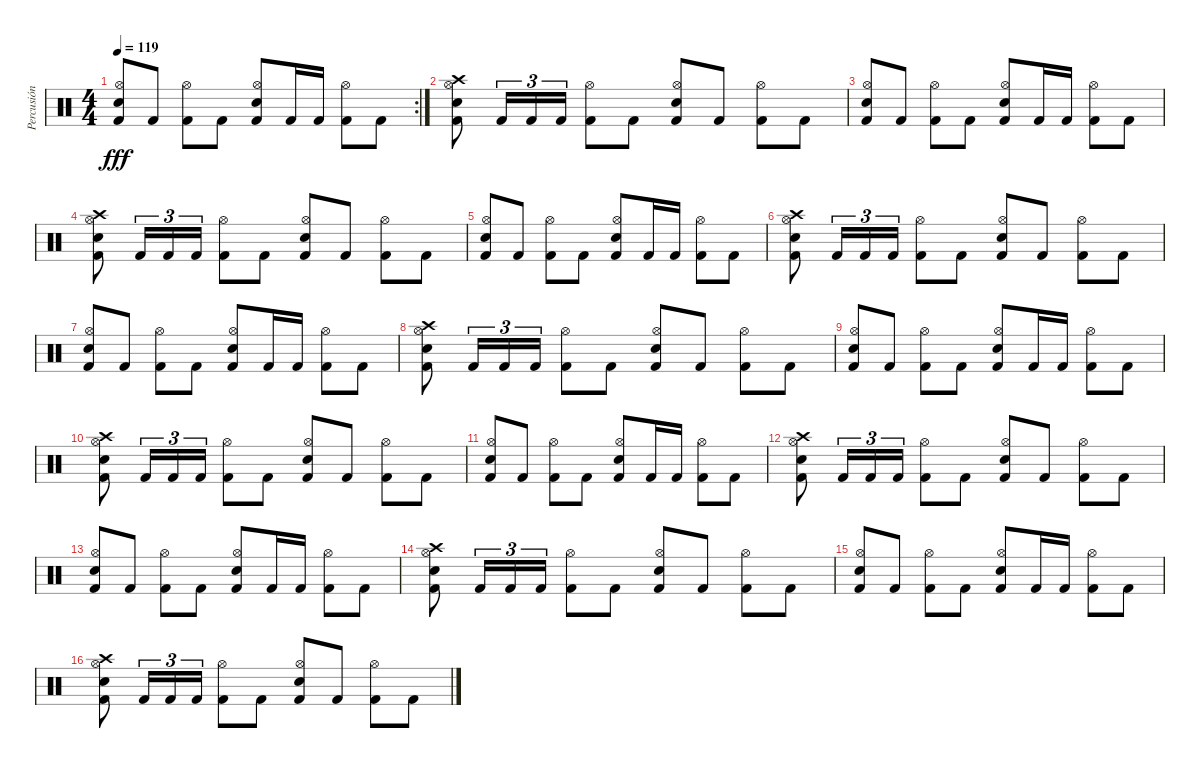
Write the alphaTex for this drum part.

\track ("Percusión" "Percusión") {instrument percussion}
\staff {score}
\articulation defaults
\rc 2
\ts (4 4)
\tempo 119
\clef neutral
\ks c
("Electric Snare (hit)" "Hi-Hat (open)" "Kick (hit) 2").8{dy fff} "Kick (hit) 2".8 ("Hi-Hat (open)" "Kick (hit) 2").8 "Kick (hit) 2".8 ("Electric Snare (hit)" "Hi-Hat (open)" "Kick (hit) 2").8 "Kick (hit) 2".16 "Kick (hit) 2".16 ("Hi-Hat (open)" "Kick (hit) 2").8 "Kick (hit) 2".8 |
("Crash high (hit)" "Electric Snare (hit)" "Hi-Hat (open)" "Kick (hit) 2").8 "Kick (hit) 2".16{tu (3 2)} "Kick (hit) 2".16{tu (3 2)} "Kick (hit) 2".16{tu (3 2)} ("Hi-Hat (open)" "Kick (hit) 2").8 "Kick (hit) 2".8 ("Electric Snare (hit)" "Hi-Hat (open)" "Kick (hit) 2").8 "Kick (hit) 2".8 ("Hi-Hat (open)" "Kick (hit) 2").8 "Kick (hit) 2".8 |
("Electric Snare (hit)" "Hi-Hat (open)" "Kick (hit) 2").8 "Kick (hit) 2".8 ("Hi-Hat (open)" "Kick (hit) 2").8 "Kick (hit) 2".8 ("Electric Snare (hit)" "Hi-Hat (open)" "Kick (hit) 2").8 "Kick (hit) 2".16 "Kick (hit) 2".16 ("Hi-Hat (open)" "Kick (hit) 2").8 "Kick (hit) 2".8 |
("Crash high (hit)" "Electric Snare (hit)" "Hi-Hat (open)" "Kick (hit) 2").8 "Kick (hit) 2".16{tu (3 2)} "Kick (hit) 2".16{tu (3 2)} "Kick (hit) 2".16{tu (3 2)} ("Hi-Hat (open)" "Kick (hit) 2").8 "Kick (hit) 2".8 ("Electric Snare (hit)" "Hi-Hat (open)" "Kick (hit) 2").8 "Kick (hit) 2".8 ("Hi-Hat (open)" "Kick (hit) 2").8 "Kick (hit) 2".8 |
("Electric Snare (hit)" "Hi-Hat (open)" "Kick (hit) 2").8 "Kick (hit) 2".8 ("Hi-Hat (open)" "Kick (hit) 2").8 "Kick (hit) 2".8 ("Electric Snare (hit)" "Hi-Hat (open)" "Kick (hit) 2").8 "Kick (hit) 2".16 "Kick (hit) 2".16 ("Hi-Hat (open)" "Kick (hit) 2").8 "Kick (hit) 2".8 |
("Crash high (hit)" "Electric Snare (hit)" "Hi-Hat (open)" "Kick (hit) 2").8 "Kick (hit) 2".16{tu (3 2)} "Kick (hit) 2".16{tu (3 2)} "Kick (hit) 2".16{tu (3 2)} ("Hi-Hat (open)" "Kick (hit) 2").8 "Kick (hit) 2".8 ("Electric Snare (hit)" "Hi-Hat (open)" "Kick (hit) 2").8 "Kick (hit) 2".8 ("Hi-Hat (open)" "Kick (hit) 2").8 "Kick (hit) 2".8 |
("Electric Snare (hit)" "Hi-Hat (open)" "Kick (hit) 2").8 "Kick (hit) 2".8 ("Hi-Hat (open)" "Kick (hit) 2").8 "Kick (hit) 2".8 ("Electric Snare (hit)" "Hi-Hat (open)" "Kick (hit) 2").8 "Kick (hit) 2".16 "Kick (hit) 2".16 ("Hi-Hat (open)" "Kick (hit) 2").8 "Kick (hit) 2".8 |
("Crash high (hit)" "Electric Snare (hit)" "Hi-Hat (open)" "Kick (hit) 2").8 "Kick (hit) 2".16{tu (3 2)} "Kick (hit) 2".16{tu (3 2)} "Kick (hit) 2".16{tu (3 2)} ("Hi-Hat (open)" "Kick (hit) 2").8 "Kick (hit) 2".8 ("Electric Snare (hit)" "Hi-Hat (open)" "Kick (hit) 2").8 "Kick (hit) 2".8 ("Hi-Hat (open)" "Kick (hit) 2").8 "Kick (hit) 2".8 |
("Electric Snare (hit)" "Hi-Hat (open)" "Kick (hit) 2").8 "Kick (hit) 2".8 ("Hi-Hat (open)" "Kick (hit) 2").8 "Kick (hit) 2".8 ("Electric Snare (hit)" "Hi-Hat (open)" "Kick (hit) 2").8 "Kick (hit) 2".16 "Kick (hit) 2".16 ("Hi-Hat (open)" "Kick (hit) 2").8 "Kick (hit) 2".8 |
("Crash high (hit)" "Electric Snare (hit)" "Hi-Hat (open)" "Kick (hit) 2").8 "Kick (hit) 2".16{tu (3 2)} "Kick (hit) 2".16{tu (3 2)} "Kick (hit) 2".16{tu (3 2)} ("Hi-Hat (open)" "Kick (hit) 2").8 "Kick (hit) 2".8 ("Electric Snare (hit)" "Hi-Hat (open)" "Kick (hit) 2").8 "Kick (hit) 2".8 ("Hi-Hat (open)" "Kick (hit) 2").8 "Kick (hit) 2".8 |
("Electric Snare (hit)" "Hi-Hat (open)" "Kick (hit) 2").8 "Kick (hit) 2".8 ("Hi-Hat (open)" "Kick (hit) 2").8 "Kick (hit) 2".8 ("Electric Snare (hit)" "Hi-Hat (open)" "Kick (hit) 2").8 "Kick (hit) 2".16 "Kick (hit) 2".16 ("Hi-Hat (open)" "Kick (hit) 2").8 "Kick (hit) 2".8 |
("Crash high (hit)" "Electric Snare (hit)" "Hi-Hat (open)" "Kick (hit) 2").8 "Kick (hit) 2".16{tu (3 2)} "Kick (hit) 2".16{tu (3 2)} "Kick (hit) 2".16{tu (3 2)} ("Hi-Hat (open)" "Kick (hit) 2").8 "Kick (hit) 2".8 ("Electric Snare (hit)" "Hi-Hat (open)" "Kick (hit) 2").8 "Kick (hit) 2".8 ("Hi-Hat (open)" "Kick (hit) 2").8 "Kick (hit) 2".8 |
("Electric Snare (hit)" "Hi-Hat (open)" "Kick (hit) 2").8 "Kick (hit) 2".8 ("Hi-Hat (open)" "Kick (hit) 2").8 "Kick (hit) 2".8 ("Electric Snare (hit)" "Hi-Hat (open)" "Kick (hit) 2").8 "Kick (hit) 2".16 "Kick (hit) 2".16 ("Hi-Hat (open)" "Kick (hit) 2").8 "Kick (hit) 2".8 |
("Crash high (hit)" "Electric Snare (hit)" "Hi-Hat (open)" "Kick (hit) 2").8 "Kick (hit) 2".16{tu (3 2)} "Kick (hit) 2".16{tu (3 2)} "Kick (hit) 2".16{tu (3 2)} ("Hi-Hat (open)" "Kick (hit) 2").8 "Kick (hit) 2".8 ("Electric Snare (hit)" "Hi-Hat (open)" "Kick (hit) 2").8 "Kick (hit) 2".8 ("Hi-Hat (open)" "Kick (hit) 2").8 "Kick (hit) 2".8 |
("Electric Snare (hit)" "Hi-Hat (open)" "Kick (hit) 2").8 "Kick (hit) 2".8 ("Hi-Hat (open)" "Kick (hit) 2").8 "Kick (hit) 2".8 ("Electric Snare (hit)" "Hi-Hat (open)" "Kick (hit) 2").8 "Kick (hit) 2".16 "Kick (hit) 2".16 ("Hi-Hat (open)" "Kick (hit) 2").8 "Kick (hit) 2".8 |
("Crash high (hit)" "Electric Snare (hit)" "Hi-Hat (open)" "Kick (hit) 2").8 "Kick (hit) 2".16{tu (3 2)} "Kick (hit) 2".16{tu (3 2)} "Kick (hit) 2".16{tu (3 2)} ("Hi-Hat (open)" "Kick (hit) 2").8 "Kick (hit) 2".8 ("Electric Snare (hit)" "Hi-Hat (open)" "Kick (hit) 2").8 "Kick (hit) 2".8 ("Hi-Hat (open)" "Kick (hit) 2").8 "Kick (hit) 2".8
